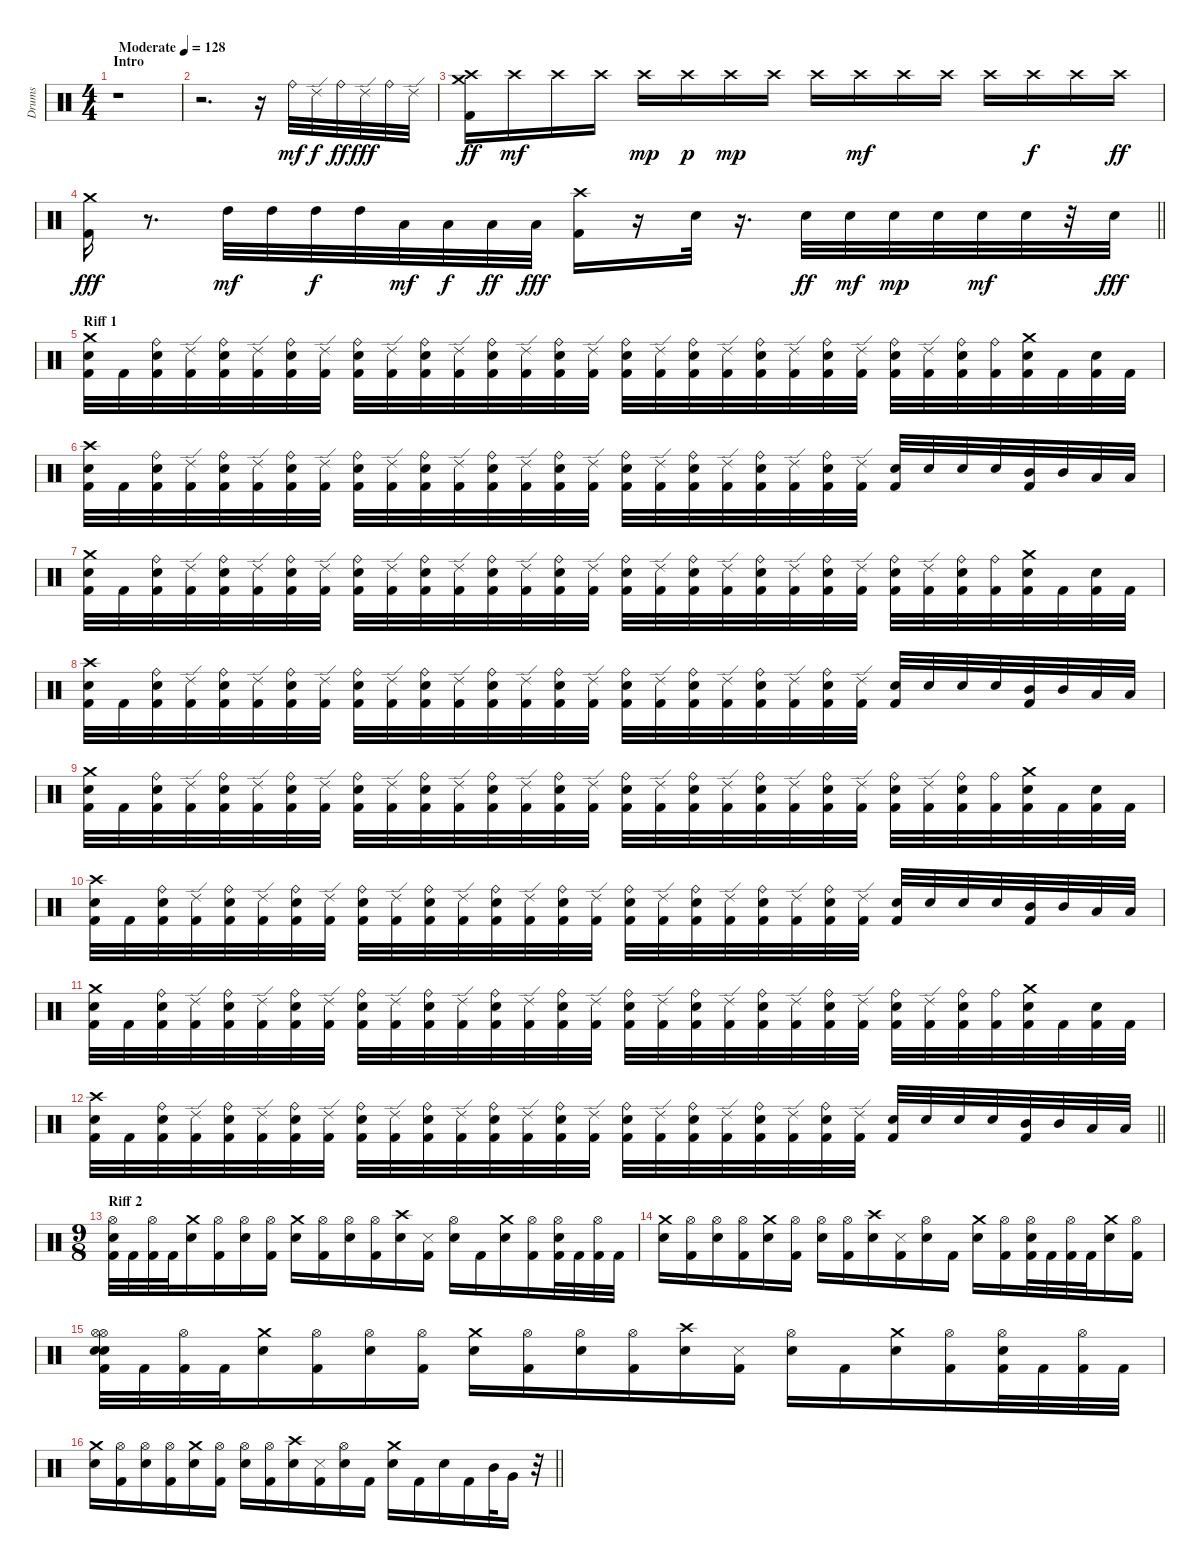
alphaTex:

\track ("Drums" "Drums") {instrument percussion}
\staff {score}
\articulation defaults
\ts (4 4)
\section ("" "Intro")
\tempo (128 "Moderate")
\clef neutral
\ks c
r.1{dy mf} |
r.2{d} r.16 "Ride (bell)".32 "Ride (edge) 2".32{dy f} "Ride (bell)".32{dy ff} "Ride (edge) 2".32{dy fff} "Ride (bell)".32 "Ride (edge) 2".32 |
("Kick (hit) 2" "Crash high (hit)" "Crash medium (hit)").16{dy ff} "Crash high (hit)".16{dy mf} "Crash high (hit)".16 "Crash high (hit)".16 "Crash high (hit)".16{dy mp} "Crash high (hit)".16{dy p} "Crash high (hit)".16{dy mp} "Crash high (hit)".16 "Crash high (hit)".16 "Crash high (hit)".16{dy mf} "Crash high (hit)".16 "Crash high (hit)".16 "Crash high (hit)".16 "Crash high (hit)".16{dy f} "Crash high (hit)".16 "Crash high (hit)".16{dy ff} |
\barLineRight lightlight
("Kick (hit) 2" "Crash medium (hit)").16{dy fff} r.8{d} "High Tom (hit)".32{dy mf} "High Tom (hit)".32 "High Tom (hit)".32{dy f} "High Tom (hit)".32 "Low Tom (hit)".32{dy mf} "Low Tom (hit)".32{dy f} "Low Tom (hit)".32{dy ff} "Low Tom (hit)".32{dy fff} ("Kick (hit) 2" "Crash high (hit)").16 r.16 "Snare (hit) 2".32 r.16{d} "Snare (hit) 2".32{dy ff} "Snare (hit) 2".32{dy mf} "Snare (hit) 2".32{dy mp} "Snare (hit) 2".32 "Snare (hit) 2".32{dy mf} "Snare (hit) 2".32 r.32 "Snare (hit) 2".32{dy fff} |
\section ("" "Riff 1")
("Kick (hit) 2" "Snare (hit) 2" "Crash medium (hit)").32 "Kick (hit) 2".32 ("Kick (hit) 2" "Snare (hit) 2" "Ride (bell)").32 ("Kick (hit) 2" "Ride (edge) 2").32 ("Kick (hit) 2" "Snare (hit) 2" "Ride (bell)").32 ("Kick (hit) 2" "Ride (edge) 2").32 ("Kick (hit) 2" "Snare (hit) 2" "Ride (bell)").32 ("Kick (hit) 2" "Ride (edge) 2").32 ("Kick (hit) 2" "Snare (hit) 2" "Ride (bell)").32 ("Kick (hit) 2" "Ride (edge) 2").32 ("Kick (hit) 2" "Snare (hit) 2" "Ride (bell)").32 ("Kick (hit) 2" "Ride (edge) 2").32 ("Kick (hit) 2" "Snare (hit) 2" "Ride (bell)").32 ("Kick (hit) 2" "Ride (edge) 2").32 ("Kick (hit) 2" "Snare (hit) 2" "Ride (bell)").32 ("Kick (hit) 2" "Ride (edge) 2").32 ("Kick (hit) 2" "Snare (hit) 2" "Ride (bell)").32 ("Kick (hit) 2" "Ride (edge) 2").32 ("Kick (hit) 2" "Snare (hit) 2" "Ride (bell)").32 ("Kick (hit) 2" "Ride (edge) 2").32 ("Kick (hit) 2" "Snare (hit) 2" "Ride (bell)").32 ("Kick (hit) 2" "Ride (edge) 2").32 ("Kick (hit) 2" "Snare (hit) 2" "Ride (bell)").32 ("Kick (hit) 2" "Ride (edge) 2").32 ("Kick (hit) 2" "Snare (hit) 2" "Ride (bell)").32 ("Kick (hit) 2" "Ride (edge) 2").32 ("Kick (hit) 2" "Snare (hit) 2" "Ride (bell)").32 ("Kick (hit) 2" "Ride (bell)").32 ("Kick (hit) 2" "Snare (hit) 2" "Crash medium (hit)").32 "Kick (hit) 2".32 ("Kick (hit) 2" "Snare (hit) 2").32 "Kick (hit) 2".32 |
("Kick (hit) 2" "Snare (hit) 2" "Crash high (hit)").32 "Kick (hit) 2".32 ("Kick (hit) 2" "Snare (hit) 2" "Ride (bell)").32 ("Kick (hit) 2" "Ride (edge) 2").32 ("Kick (hit) 2" "Snare (hit) 2" "Ride (bell)").32 ("Kick (hit) 2" "Ride (edge) 2").32 ("Kick (hit) 2" "Snare (hit) 2" "Ride (bell)").32 ("Kick (hit) 2" "Ride (edge) 2").32 ("Kick (hit) 2" "Snare (hit) 2" "Ride (bell)").32 ("Kick (hit) 2" "Ride (edge) 2").32 ("Kick (hit) 2" "Snare (hit) 2" "Ride (bell)").32 ("Kick (hit) 2" "Ride (edge) 2").32 ("Kick (hit) 2" "Snare (hit) 2" "Ride (bell)").32 ("Kick (hit) 2" "Ride (edge) 2").32 ("Kick (hit) 2" "Snare (hit) 2" "Ride (bell)").32 ("Kick (hit) 2" "Ride (edge) 2").32 ("Kick (hit) 2" "Snare (hit) 2" "Ride (bell)").32 ("Kick (hit) 2" "Ride (edge) 2").32 ("Kick (hit) 2" "Snare (hit) 2" "Ride (bell)").32 ("Kick (hit) 2" "Ride (edge) 2").32 ("Kick (hit) 2" "Snare (hit) 2" "Ride (bell)").32 ("Kick (hit) 2" "Ride (edge) 2").32 ("Kick (hit) 2" "Snare (hit) 2" "Ride (bell)").32 ("Kick (hit) 2" "Ride (edge) 2").32 ("Kick (hit) 2" "Snare (hit) 2").32 "Snare (hit) 2".32 "Snare (hit) 2".32 "Snare (hit) 2".32 ("Kick (hit) 2" "Mid Tom (hit)").32 "Mid Tom (hit)".32 "Low Tom (hit)".32 "Low Tom (hit)".32 |
("Kick (hit) 2" "Snare (hit) 2" "Crash medium (hit)").32 "Kick (hit) 2".32 ("Kick (hit) 2" "Snare (hit) 2" "Ride (bell)").32 ("Kick (hit) 2" "Ride (edge) 2").32 ("Kick (hit) 2" "Snare (hit) 2" "Ride (bell)").32 ("Kick (hit) 2" "Ride (edge) 2").32 ("Kick (hit) 2" "Snare (hit) 2" "Ride (bell)").32 ("Kick (hit) 2" "Ride (edge) 2").32 ("Kick (hit) 2" "Snare (hit) 2" "Ride (bell)").32 ("Kick (hit) 2" "Ride (edge) 2").32 ("Kick (hit) 2" "Snare (hit) 2" "Ride (bell)").32 ("Kick (hit) 2" "Ride (edge) 2").32 ("Kick (hit) 2" "Snare (hit) 2" "Ride (bell)").32 ("Kick (hit) 2" "Ride (edge) 2").32 ("Kick (hit) 2" "Snare (hit) 2" "Ride (bell)").32 ("Kick (hit) 2" "Ride (edge) 2").32 ("Kick (hit) 2" "Snare (hit) 2" "Ride (bell)").32 ("Kick (hit) 2" "Ride (edge) 2").32 ("Kick (hit) 2" "Snare (hit) 2" "Ride (bell)").32 ("Kick (hit) 2" "Ride (edge) 2").32 ("Kick (hit) 2" "Snare (hit) 2" "Ride (bell)").32 ("Kick (hit) 2" "Ride (edge) 2").32 ("Kick (hit) 2" "Snare (hit) 2" "Ride (bell)").32 ("Kick (hit) 2" "Ride (edge) 2").32 ("Kick (hit) 2" "Snare (hit) 2" "Ride (bell)").32 ("Kick (hit) 2" "Ride (edge) 2").32 ("Kick (hit) 2" "Snare (hit) 2" "Ride (bell)").32 ("Kick (hit) 2" "Ride (bell)").32 ("Kick (hit) 2" "Snare (hit) 2" "Crash medium (hit)").32 "Kick (hit) 2".32 ("Kick (hit) 2" "Snare (hit) 2").32 "Kick (hit) 2".32 |
("Kick (hit) 2" "Snare (hit) 2" "Crash high (hit)").32 "Kick (hit) 2".32 ("Kick (hit) 2" "Snare (hit) 2" "Ride (bell)").32 ("Kick (hit) 2" "Ride (edge) 2").32 ("Kick (hit) 2" "Snare (hit) 2" "Ride (bell)").32 ("Kick (hit) 2" "Ride (edge) 2").32 ("Kick (hit) 2" "Snare (hit) 2" "Ride (bell)").32 ("Kick (hit) 2" "Ride (edge) 2").32 ("Kick (hit) 2" "Snare (hit) 2" "Ride (bell)").32 ("Kick (hit) 2" "Ride (edge) 2").32 ("Kick (hit) 2" "Snare (hit) 2" "Ride (bell)").32 ("Kick (hit) 2" "Ride (edge) 2").32 ("Kick (hit) 2" "Snare (hit) 2" "Ride (bell)").32 ("Kick (hit) 2" "Ride (edge) 2").32 ("Kick (hit) 2" "Snare (hit) 2" "Ride (bell)").32 ("Kick (hit) 2" "Ride (edge) 2").32 ("Kick (hit) 2" "Snare (hit) 2" "Ride (bell)").32 ("Kick (hit) 2" "Ride (edge) 2").32 ("Kick (hit) 2" "Snare (hit) 2" "Ride (bell)").32 ("Kick (hit) 2" "Ride (edge) 2").32 ("Kick (hit) 2" "Snare (hit) 2" "Ride (bell)").32 ("Kick (hit) 2" "Ride (edge) 2").32 ("Kick (hit) 2" "Snare (hit) 2" "Ride (bell)").32 ("Kick (hit) 2" "Ride (edge) 2").32 ("Kick (hit) 2" "Snare (hit) 2").32 "Snare (hit) 2".32 "Snare (hit) 2".32 "Snare (hit) 2".32 ("Kick (hit) 2" "Mid Tom (hit)").32 "Mid Tom (hit)".32 "Low Tom (hit)".32 "Low Tom (hit)".32 |
("Kick (hit) 2" "Snare (hit) 2" "Crash medium (hit)").32 "Kick (hit) 2".32 ("Kick (hit) 2" "Snare (hit) 2" "Ride (bell)").32 ("Kick (hit) 2" "Ride (edge) 2").32 ("Kick (hit) 2" "Snare (hit) 2" "Ride (bell)").32 ("Kick (hit) 2" "Ride (edge) 2").32 ("Kick (hit) 2" "Snare (hit) 2" "Ride (bell)").32 ("Kick (hit) 2" "Ride (edge) 2").32 ("Kick (hit) 2" "Snare (hit) 2" "Ride (bell)").32 ("Kick (hit) 2" "Ride (edge) 2").32 ("Kick (hit) 2" "Snare (hit) 2" "Ride (bell)").32 ("Kick (hit) 2" "Ride (edge) 2").32 ("Kick (hit) 2" "Snare (hit) 2" "Ride (bell)").32 ("Kick (hit) 2" "Ride (edge) 2").32 ("Kick (hit) 2" "Snare (hit) 2" "Ride (bell)").32 ("Kick (hit) 2" "Ride (edge) 2").32 ("Kick (hit) 2" "Snare (hit) 2" "Ride (bell)").32 ("Kick (hit) 2" "Ride (edge) 2").32 ("Kick (hit) 2" "Snare (hit) 2" "Ride (bell)").32 ("Kick (hit) 2" "Ride (edge) 2").32 ("Kick (hit) 2" "Snare (hit) 2" "Ride (bell)").32 ("Kick (hit) 2" "Ride (edge) 2").32 ("Kick (hit) 2" "Snare (hit) 2" "Ride (bell)").32 ("Kick (hit) 2" "Ride (edge) 2").32 ("Kick (hit) 2" "Snare (hit) 2" "Ride (bell)").32 ("Kick (hit) 2" "Ride (edge) 2").32 ("Kick (hit) 2" "Snare (hit) 2" "Ride (bell)").32 ("Kick (hit) 2" "Ride (bell)").32 ("Kick (hit) 2" "Snare (hit) 2" "Crash medium (hit)").32 "Kick (hit) 2".32 ("Kick (hit) 2" "Snare (hit) 2").32 "Kick (hit) 2".32 |
("Kick (hit) 2" "Snare (hit) 2" "Crash high (hit)").32 "Kick (hit) 2".32 ("Kick (hit) 2" "Snare (hit) 2" "Ride (bell)").32 ("Kick (hit) 2" "Ride (edge) 2").32 ("Kick (hit) 2" "Snare (hit) 2" "Ride (bell)").32 ("Kick (hit) 2" "Ride (edge) 2").32 ("Kick (hit) 2" "Snare (hit) 2" "Ride (bell)").32 ("Kick (hit) 2" "Ride (edge) 2").32 ("Kick (hit) 2" "Snare (hit) 2" "Ride (bell)").32 ("Kick (hit) 2" "Ride (edge) 2").32 ("Kick (hit) 2" "Snare (hit) 2" "Ride (bell)").32 ("Kick (hit) 2" "Ride (edge) 2").32 ("Kick (hit) 2" "Snare (hit) 2" "Ride (bell)").32 ("Kick (hit) 2" "Ride (edge) 2").32 ("Kick (hit) 2" "Snare (hit) 2" "Ride (bell)").32 ("Kick (hit) 2" "Ride (edge) 2").32 ("Kick (hit) 2" "Snare (hit) 2" "Ride (bell)").32 ("Kick (hit) 2" "Ride (edge) 2").32 ("Kick (hit) 2" "Snare (hit) 2" "Ride (bell)").32 ("Kick (hit) 2" "Ride (edge) 2").32 ("Kick (hit) 2" "Snare (hit) 2" "Ride (bell)").32 ("Kick (hit) 2" "Ride (edge) 2").32 ("Kick (hit) 2" "Snare (hit) 2" "Ride (bell)").32 ("Kick (hit) 2" "Ride (edge) 2").32 ("Kick (hit) 2" "Snare (hit) 2").32 "Snare (hit) 2".32 "Snare (hit) 2".32 "Snare (hit) 2".32 ("Kick (hit) 2" "Mid Tom (hit)").32 "Mid Tom (hit)".32 "Low Tom (hit)".32 "Low Tom (hit)".32 |
("Kick (hit) 2" "Snare (hit) 2" "Crash medium (hit)").32 "Kick (hit) 2".32 ("Kick (hit) 2" "Snare (hit) 2" "Ride (bell)").32 ("Kick (hit) 2" "Ride (edge) 2").32 ("Kick (hit) 2" "Snare (hit) 2" "Ride (bell)").32 ("Kick (hit) 2" "Ride (edge) 2").32 ("Kick (hit) 2" "Snare (hit) 2" "Ride (bell)").32 ("Kick (hit) 2" "Ride (edge) 2").32 ("Kick (hit) 2" "Snare (hit) 2" "Ride (bell)").32 ("Kick (hit) 2" "Ride (edge) 2").32 ("Kick (hit) 2" "Snare (hit) 2" "Ride (bell)").32 ("Kick (hit) 2" "Ride (edge) 2").32 ("Kick (hit) 2" "Snare (hit) 2" "Ride (bell)").32 ("Kick (hit) 2" "Ride (edge) 2").32 ("Kick (hit) 2" "Snare (hit) 2" "Ride (bell)").32 ("Kick (hit) 2" "Ride (edge) 2").32 ("Kick (hit) 2" "Snare (hit) 2" "Ride (bell)").32 ("Kick (hit) 2" "Ride (edge) 2").32 ("Kick (hit) 2" "Snare (hit) 2" "Ride (bell)").32 ("Kick (hit) 2" "Ride (edge) 2").32 ("Kick (hit) 2" "Snare (hit) 2" "Ride (bell)").32 ("Kick (hit) 2" "Ride (edge) 2").32 ("Kick (hit) 2" "Snare (hit) 2" "Ride (bell)").32 ("Kick (hit) 2" "Ride (edge) 2").32 ("Kick (hit) 2" "Snare (hit) 2" "Ride (bell)").32 ("Kick (hit) 2" "Ride (edge) 2").32 ("Kick (hit) 2" "Snare (hit) 2" "Ride (bell)").32 ("Kick (hit) 2" "Ride (bell)").32 ("Kick (hit) 2" "Snare (hit) 2" "Crash medium (hit)").32 "Kick (hit) 2".32 ("Kick (hit) 2" "Snare (hit) 2").32 "Kick (hit) 2".32 |
\barLineRight lightlight
("Kick (hit) 2" "Snare (hit) 2" "Crash high (hit)").32 "Kick (hit) 2".32 ("Kick (hit) 2" "Snare (hit) 2" "Ride (bell)").32 ("Kick (hit) 2" "Ride (edge) 2").32 ("Kick (hit) 2" "Snare (hit) 2" "Ride (bell)").32 ("Kick (hit) 2" "Ride (edge) 2").32 ("Kick (hit) 2" "Snare (hit) 2" "Ride (bell)").32 ("Kick (hit) 2" "Ride (edge) 2").32 ("Kick (hit) 2" "Snare (hit) 2" "Ride (bell)").32 ("Kick (hit) 2" "Ride (edge) 2").32 ("Kick (hit) 2" "Snare (hit) 2" "Ride (bell)").32 ("Kick (hit) 2" "Ride (edge) 2").32 ("Kick (hit) 2" "Snare (hit) 2" "Ride (bell)").32 ("Kick (hit) 2" "Ride (edge) 2").32 ("Kick (hit) 2" "Snare (hit) 2" "Ride (bell)").32 ("Kick (hit) 2" "Ride (edge) 2").32 ("Kick (hit) 2" "Snare (hit) 2" "Ride (bell)").32 ("Kick (hit) 2" "Ride (edge) 2").32 ("Kick (hit) 2" "Snare (hit) 2" "Ride (bell)").32 ("Kick (hit) 2" "Ride (edge) 2").32 ("Kick (hit) 2" "Snare (hit) 2" "Ride (bell)").32 ("Kick (hit) 2" "Ride (edge) 2").32 ("Kick (hit) 2" "Snare (hit) 2" "Ride (bell)").32 ("Kick (hit) 2" "Ride (edge) 2").32 ("Kick (hit) 2" "Snare (hit) 2").32 "Snare (hit) 2".32 "Snare (hit) 2".32 "Snare (hit) 2".32 ("Kick (hit) 2" "Mid Tom (hit)").32 "Mid Tom (hit)".32 "Low Tom (hit)".32 "Low Tom (hit)".32 |
\ts (9 8)
\section ("" "Riff 2")
("Kick (hit) 2" "Snare (hit) 2" "Hi-Hat (open)").32 "Kick (hit) 2".32 ("Kick (hit) 2" "Hi-Hat (open)").32 "Kick (hit) 2".32 ("Snare (hit) 2" "Crash medium (hit)").16 ("Kick (hit) 2" "Hi-Hat (open)").16 ("Snare (hit) 2" "Hi-Hat (open)").16 ("Kick (hit) 2" "Hi-Hat (open)").16 ("Snare (hit) 2" "Crash medium (hit)").16 ("Kick (hit) 2" "Hi-Hat (open)").16 ("Snare (hit) 2" "Hi-Hat (open)").16 ("Kick (hit) 2" "Hi-Hat (open)").16 ("Snare (hit) 2" "Crash high (hit)").16 ("Kick (hit) 2" "Snare (side stick) 3").16 ("Snare (hit) 2" "Hi-Hat (open)").16 "Kick (hit) 2".16 ("Snare (hit) 2" "Crash medium (hit)").16 ("Kick (hit) 2" "Hi-Hat (open)").16 ("Kick (hit) 2" "Snare (hit) 2" "Hi-Hat (open)").32 "Kick (hit) 2".32 ("Kick (hit) 2" "Hi-Hat (open)").32 "Kick (hit) 2".32 |
("Snare (hit) 2" "Crash medium (hit)").16 ("Kick (hit) 2" "Hi-Hat (open)").16 ("Snare (hit) 2" "Hi-Hat (open)").16 ("Kick (hit) 2" "Hi-Hat (open)").16 ("Snare (hit) 2" "Crash medium (hit)").16 ("Kick (hit) 2" "Hi-Hat (open)").16 ("Snare (hit) 2" "Hi-Hat (open)").16 ("Kick (hit) 2" "Hi-Hat (open)").16 ("Snare (hit) 2" "Crash high (hit)").16 ("Kick (hit) 2" "Snare (side stick) 3").16 ("Snare (hit) 2" "Hi-Hat (open)").16 "Kick (hit) 2".16 ("Snare (hit) 2" "Crash medium (hit)").16 ("Kick (hit) 2" "Hi-Hat (open)").16 ("Kick (hit) 2" "Snare (hit) 2" "Hi-Hat (open)").32 "Kick (hit) 2".32 ("Kick (hit) 2" "Hi-Hat (open)").32 "Kick (hit) 2".32 ("Snare (hit) 2" "Crash medium (hit)").16 ("Kick (hit) 2" "Hi-Hat (open)").16 |
("Snare (hit) 2" "Hi-Hat (open)" "Kick (hit) 2" "Snare (hit) 2" "Hi-Hat (open)").32 "Kick (hit) 2".32 ("Kick (hit) 2" "Hi-Hat (open)").32 "Kick (hit) 2".32 ("Snare (hit) 2" "Crash medium (hit)").16 ("Kick (hit) 2" "Hi-Hat (open)").16 ("Snare (hit) 2" "Hi-Hat (open)").16 ("Kick (hit) 2" "Hi-Hat (open)").16 ("Snare (hit) 2" "Crash medium (hit)").16 ("Kick (hit) 2" "Hi-Hat (open)").16 ("Snare (hit) 2" "Hi-Hat (open)").16 ("Kick (hit) 2" "Hi-Hat (open)").16 ("Snare (hit) 2" "Crash high (hit)").16 ("Kick (hit) 2" "Snare (side stick) 3").16 ("Snare (hit) 2" "Hi-Hat (open)").16 "Kick (hit) 2".16 ("Snare (hit) 2" "Crash medium (hit)").16 ("Kick (hit) 2" "Hi-Hat (open)").16 ("Kick (hit) 2" "Snare (hit) 2" "Hi-Hat (open)").32 "Kick (hit) 2".32 ("Kick (hit) 2" "Hi-Hat (open)").32 "Kick (hit) 2".32 |
\barLineRight lightlight
("Snare (hit) 2" "Crash medium (hit)").16 ("Kick (hit) 2" "Hi-Hat (open)").16 ("Snare (hit) 2" "Hi-Hat (open)").16 ("Kick (hit) 2" "Hi-Hat (open)").16 ("Snare (hit) 2" "Crash medium (hit)").16 ("Kick (hit) 2" "Hi-Hat (open)").16 ("Snare (hit) 2" "Hi-Hat (open)").16 ("Kick (hit) 2" "Hi-Hat (open)").16 ("Snare (hit) 2" "Crash high (hit)").16 ("Kick (hit) 2" "Snare (side stick) 3").16 ("Snare (hit) 2" "Hi-Hat (open)").16 "Kick (hit) 2".16 ("Snare (hit) 2" "Crash medium (hit)").16 "Kick (hit) 2".16 "Snare (hit) 2".16 "Kick (hit) 2".16 "Mid Tom (hit)".32 "Very Low Tom (hit)".16 r.32
